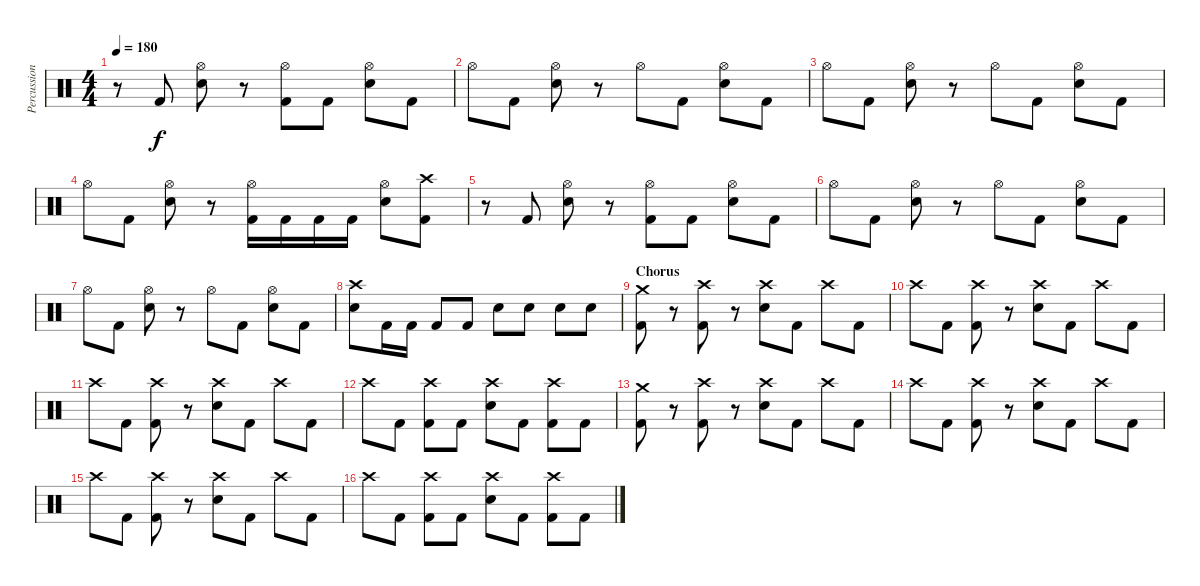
\track ("Percussion" "Percussion") {instrument percussion}
\staff {score}
\articulation defaults
\ts (4 4)
\tempo 180
\clef neutral
\ks c
r.8{dy f} "Kick (hit) 2".8 ("Hi-Hat (open)" "Electric Snare (hit)").8 r.8 ("Hi-Hat (open)" "Kick (hit) 2").8 "Kick (hit) 2".8 ("Hi-Hat (open)" "Electric Snare (hit)").8 "Kick (hit) 2".8 |
"Hi-Hat (open)".8 "Kick (hit) 2".8 ("Hi-Hat (open)" "Electric Snare (hit)").8 r.8 "Hi-Hat (open)".8 "Kick (hit) 2".8 ("Hi-Hat (open)" "Electric Snare (hit)").8 "Kick (hit) 2".8 |
"Hi-Hat (open)".8 "Kick (hit) 2".8 ("Hi-Hat (open)" "Electric Snare (hit)").8 r.8 "Hi-Hat (open)".8 "Kick (hit) 2".8 ("Hi-Hat (open)" "Electric Snare (hit)").8 "Kick (hit) 2".8 |
"Hi-Hat (open)".8 "Kick (hit) 2".8 ("Hi-Hat (open)" "Electric Snare (hit)").8 r.8 ("Hi-Hat (open)" "Kick (hit) 2").16 "Kick (hit) 2".16 "Kick (hit) 2".16 "Kick (hit) 2".16 ("Hi-Hat (open)" "Electric Snare (hit)").8 ("Crash high (hit)" "Kick (hit) 2").8 |
r.8 "Kick (hit) 2".8 ("Hi-Hat (open)" "Electric Snare (hit)").8 r.8 ("Hi-Hat (open)" "Kick (hit) 2").8 "Kick (hit) 2".8 ("Hi-Hat (open)" "Electric Snare (hit)").8 "Kick (hit) 2".8 |
"Hi-Hat (open)".8 "Kick (hit) 2".8 ("Hi-Hat (open)" "Electric Snare (hit)").8 r.8 "Hi-Hat (open)".8 "Kick (hit) 2".8 ("Hi-Hat (open)" "Electric Snare (hit)").8 "Kick (hit) 2".8 |
"Hi-Hat (open)".8 "Kick (hit) 2".8 ("Hi-Hat (open)" "Electric Snare (hit)").8 r.8 "Hi-Hat (open)".8 "Kick (hit) 2".8 ("Hi-Hat (open)" "Electric Snare (hit)").8 "Kick (hit) 2".8 |
("Crash high (hit)" "Electric Snare (hit)").8 "Kick (hit) 2".16 "Kick (hit) 2".16 "Kick (hit) 2".8 "Kick (hit) 2".8 "Electric Snare (hit)".8 "Electric Snare (hit)".8 "Electric Snare (hit)".8 "Electric Snare (hit)".8 |
\section ("" "Chorus")
("Crash medium (hit)" "Kick (hit) 2").8 r.8 ("Crash high (hit)" "Kick (hit) 2").8 r.8 ("Crash high (hit)" "Electric Snare (hit)").8 "Kick (hit) 2".8 "Crash high (hit)".8 "Kick (hit) 2".8 |
"Crash high (hit)".8 "Kick (hit) 2".8 ("Crash high (hit)" "Kick (hit) 2").8 r.8 ("Crash high (hit)" "Electric Snare (hit)").8 "Kick (hit) 2".8 "Crash high (hit)".8 "Kick (hit) 2".8 |
"Crash high (hit)".8 "Kick (hit) 2".8 ("Crash high (hit)" "Kick (hit) 2").8 r.8 ("Crash high (hit)" "Electric Snare (hit)").8 "Kick (hit) 2".8 "Crash high (hit)".8 "Kick (hit) 2".8 |
"Crash high (hit)".8 "Kick (hit) 2".8 ("Crash high (hit)" "Kick (hit) 2").8 "Kick (hit) 2".8 ("Crash high (hit)" "Electric Snare (hit)").8 "Kick (hit) 2".8 ("Crash high (hit)" "Kick (hit) 2").8 "Kick (hit) 2".8 |
("Crash medium (hit)" "Kick (hit) 2").8 r.8 ("Crash high (hit)" "Kick (hit) 2").8 r.8 ("Crash high (hit)" "Electric Snare (hit)").8 "Kick (hit) 2".8 "Crash high (hit)".8 "Kick (hit) 2".8 |
"Crash high (hit)".8 "Kick (hit) 2".8 ("Crash high (hit)" "Kick (hit) 2").8 r.8 ("Crash high (hit)" "Electric Snare (hit)").8 "Kick (hit) 2".8 "Crash high (hit)".8 "Kick (hit) 2".8 |
"Crash high (hit)".8 "Kick (hit) 2".8 ("Crash high (hit)" "Kick (hit) 2").8 r.8 ("Crash high (hit)" "Electric Snare (hit)").8 "Kick (hit) 2".8 "Crash high (hit)".8 "Kick (hit) 2".8 |
"Crash high (hit)".8 "Kick (hit) 2".8 ("Crash high (hit)" "Kick (hit) 2").8 "Kick (hit) 2".8 ("Crash high (hit)" "Electric Snare (hit)").8 "Kick (hit) 2".8 ("Crash high (hit)" "Kick (hit) 2").8 "Kick (hit) 2".8
